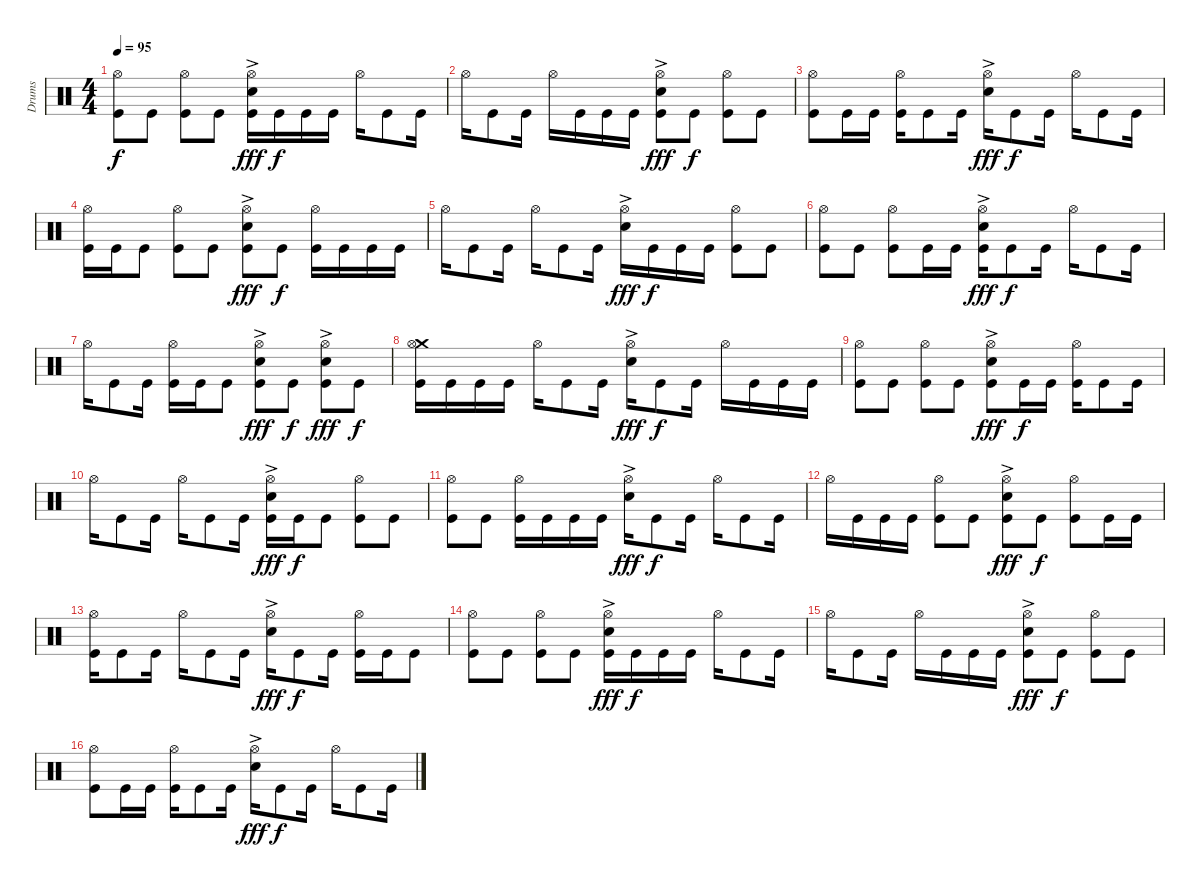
\track ("Drums" "Drums") {instrument percussion}
\staff {score}
\articulation defaults
\ts (4 4)
\tempo 95
\clef neutral
\ks c
("Hi-Hat (open)" "Kick (hit)").8{dy f} "Kick (hit)".8 ("Hi-Hat (open)" "Kick (hit)").8 "Kick (hit)".8 ("Hi-Hat (open)" "Snare (hit) 2"{ac} "Kick (hit)").16{dy fff} "Kick (hit)".16{dy f} "Kick (hit)".16 "Kick (hit)".16 "Hi-Hat (open)".16 "Kick (hit)".8 "Kick (hit)".16 |
"Hi-Hat (open)".16 "Kick (hit)".8 "Kick (hit)".16 "Hi-Hat (open)".16 "Kick (hit)".16 "Kick (hit)".16 "Kick (hit)".16 ("Hi-Hat (open)" "Snare (hit) 2"{ac} "Kick (hit)").8{dy fff} "Kick (hit)".8{dy f} ("Hi-Hat (open)" "Kick (hit)").8 "Kick (hit)".8 |
("Hi-Hat (open)" "Kick (hit)").8 "Kick (hit)".16 "Kick (hit)".16 ("Hi-Hat (open)" "Kick (hit)").16 "Kick (hit)".8 "Kick (hit)".16 ("Hi-Hat (open)" "Snare (hit) 2"{ac}).16{dy fff} "Kick (hit)".8{dy f} "Kick (hit)".16 "Hi-Hat (open)".16 "Kick (hit)".8 "Kick (hit)".16 |
("Hi-Hat (open)" "Kick (hit)").16 "Kick (hit)".16 "Kick (hit)".8 ("Hi-Hat (open)" "Kick (hit)").8 "Kick (hit)".8 ("Hi-Hat (open)" "Snare (hit) 2"{ac} "Kick (hit)").8{dy fff} "Kick (hit)".8{dy f} ("Hi-Hat (open)" "Kick (hit)").16 "Kick (hit)".16 "Kick (hit)".16 "Kick (hit)".16 |
"Hi-Hat (open)".16 "Kick (hit)".8 "Kick (hit)".16 "Hi-Hat (open)".16 "Kick (hit)".8 "Kick (hit)".16 ("Hi-Hat (open)" "Snare (hit) 2"{ac}).16{dy fff} "Kick (hit)".16{dy f} "Kick (hit)".16 "Kick (hit)".16 ("Hi-Hat (open)" "Kick (hit)").8 "Kick (hit)".8 |
("Hi-Hat (open)" "Kick (hit)").8 "Kick (hit)".8 ("Hi-Hat (open)" "Kick (hit)").8 "Kick (hit)".16 "Kick (hit)".16 ("Hi-Hat (open)" "Snare (hit) 2"{ac} "Kick (hit)").16{dy fff} "Kick (hit)".8{dy f} "Kick (hit)".16 "Hi-Hat (open)".16 "Kick (hit)".8 "Kick (hit)".16 |
"Hi-Hat (open)".16 "Kick (hit)".8 "Kick (hit)".16 ("Hi-Hat (open)" "Kick (hit)").16 "Kick (hit)".16 "Kick (hit)".8 ("Hi-Hat (open)" "Snare (hit) 2"{ac} "Kick (hit)").8{dy fff} "Kick (hit)".8{dy f} ("Hi-Hat (open)" "Snare (hit) 2"{ac} "Kick (hit)").8{dy fff} "Kick (hit)".8{dy f} |
("Crash medium (hit)" "Hi-Hat (open)" "Kick (hit)").16 "Kick (hit)".16 "Kick (hit)".16 "Kick (hit)".16 "Hi-Hat (open)".16 "Kick (hit)".8 "Kick (hit)".16 ("Hi-Hat (open)" "Snare (hit) 2"{ac}).16{dy fff} "Kick (hit)".8{dy f} "Kick (hit)".16 "Hi-Hat (open)".16 "Kick (hit)".16 "Kick (hit)".16 "Kick (hit)".16 |
("Hi-Hat (open)" "Kick (hit)").8 "Kick (hit)".8 ("Hi-Hat (open)" "Kick (hit)").8 "Kick (hit)".8 ("Hi-Hat (open)" "Snare (hit) 2"{ac} "Kick (hit)").8{dy fff} "Kick (hit)".16{dy f} "Kick (hit)".16 ("Hi-Hat (open)" "Kick (hit)").16 "Kick (hit)".8 "Kick (hit)".16 |
"Hi-Hat (open)".16 "Kick (hit)".8 "Kick (hit)".16 "Hi-Hat (open)".16 "Kick (hit)".8 "Kick (hit)".16 ("Hi-Hat (open)" "Snare (hit) 2"{ac} "Kick (hit)").16{dy fff} "Kick (hit)".16{dy f} "Kick (hit)".8 ("Hi-Hat (open)" "Kick (hit)").8 "Kick (hit)".8 |
("Hi-Hat (open)" "Kick (hit)").8 "Kick (hit)".8 ("Hi-Hat (open)" "Kick (hit)").16 "Kick (hit)".16 "Kick (hit)".16 "Kick (hit)".16 ("Hi-Hat (open)" "Snare (hit) 2"{ac}).16{dy fff} "Kick (hit)".8{dy f} "Kick (hit)".16 "Hi-Hat (open)".16 "Kick (hit)".8 "Kick (hit)".16 |
"Hi-Hat (open)".16 "Kick (hit)".16 "Kick (hit)".16 "Kick (hit)".16 ("Hi-Hat (open)" "Kick (hit)").8 "Kick (hit)".8 ("Hi-Hat (open)" "Snare (hit) 2"{ac} "Kick (hit)").8{dy fff} "Kick (hit)".8{dy f} ("Hi-Hat (open)" "Kick (hit)").8 "Kick (hit)".16 "Kick (hit)".16 |
("Hi-Hat (open)" "Kick (hit)").16 "Kick (hit)".8 "Kick (hit)".16 "Hi-Hat (open)".16 "Kick (hit)".8 "Kick (hit)".16 ("Hi-Hat (open)" "Snare (hit) 2"{ac}).16{dy fff} "Kick (hit)".8{dy f} "Kick (hit)".16 ("Hi-Hat (open)" "Kick (hit)").16 "Kick (hit)".16 "Kick (hit)".8 |
("Hi-Hat (open)" "Kick (hit)").8 "Kick (hit)".8 ("Hi-Hat (open)" "Kick (hit)").8 "Kick (hit)".8 ("Hi-Hat (open)" "Snare (hit) 2"{ac} "Kick (hit)").16{dy fff} "Kick (hit)".16{dy f} "Kick (hit)".16 "Kick (hit)".16 "Hi-Hat (open)".16 "Kick (hit)".8 "Kick (hit)".16 |
"Hi-Hat (open)".16 "Kick (hit)".8 "Kick (hit)".16 "Hi-Hat (open)".16 "Kick (hit)".16 "Kick (hit)".16 "Kick (hit)".16 ("Hi-Hat (open)" "Snare (hit) 2"{ac} "Kick (hit)").8{dy fff} "Kick (hit)".8{dy f} ("Hi-Hat (open)" "Kick (hit)").8 "Kick (hit)".8 |
("Hi-Hat (open)" "Kick (hit)").8 "Kick (hit)".16 "Kick (hit)".16 ("Hi-Hat (open)" "Kick (hit)").16 "Kick (hit)".8 "Kick (hit)".16 ("Hi-Hat (open)" "Snare (hit) 2"{ac}).16{dy fff} "Kick (hit)".8{dy f} "Kick (hit)".16 "Hi-Hat (open)".16 "Kick (hit)".8 "Kick (hit)".16
